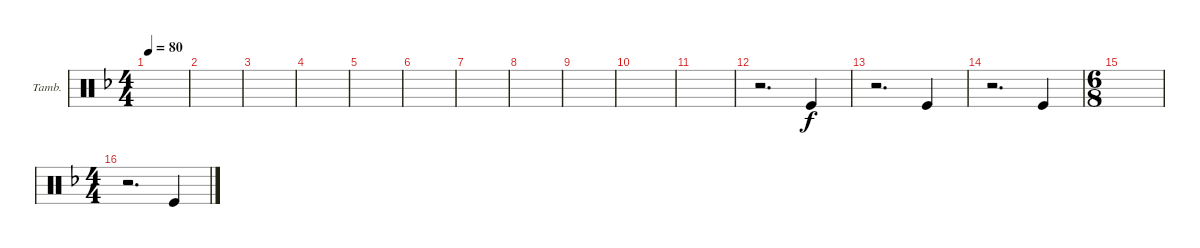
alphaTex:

\defaultSystemsLayout 4
\bracketExtendMode groupsimilarinstruments
\firstSystemTrackNameOrientation horizontal
\otherSystemsTrackNameOrientation horizontal
\track ("Tambourine" "Tamb.") {instrument percussion}
\staff {score}
\articulation defaults
\ts (4 4)
\tempo 80
\clef neutral
\ks f
|
|
|
|
|
|
|
|
|
|
|
r.2{d} "Kick (hit)".4 |
r.2{d} "Kick (hit)".4 |
r.2{d} "Kick (hit)".4 |
\ts (6 8)
|
\ts (4 4)
r.2{d} "Kick (hit)".4
